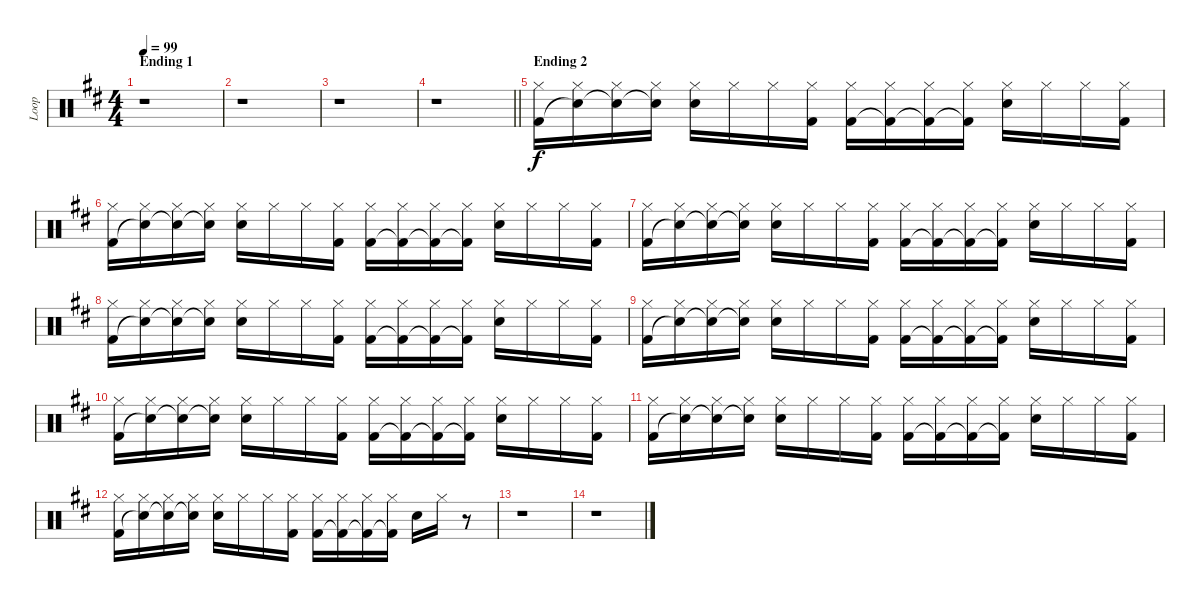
\track ("Loop" "Loop") {instrument percussion}
\staff {score}
\articulation defaults
\ts (4 4)
\section ("" "Ending 1")
\tempo 99
\clef neutral
\ks d
r.1{dy f} |
r.1 |
r.1 |
\barLineRight lightlight
r.1 |
\section ("" "Ending 2")
("Hi-Hat (closed)" "Kick (hit) 2").16 ("Hi-Hat (closed)" "Snare (hit)"{t}).16 ("Hi-Hat (closed)" "Snare (hit)"{t}).16 ("Hi-Hat (closed)" "Snare (hit)"{t}).16 ("Hi-Hat (closed)" "Electric Snare (hit)").16 "Hi-Hat (closed)".16 "Hi-Hat (closed)".16 ("Hi-Hat (closed)" "Kick (hit) 2").16 ("Hi-Hat (closed)" "Kick (hit) 2").16 ("Hi-Hat (closed)" "Kick (hit) 2"{t}).16 ("Hi-Hat (closed)" "Kick (hit) 2"{t}).16 ("Hi-Hat (closed)" "Kick (hit) 2"{t}).16 ("Hi-Hat (closed)" "Electric Snare (hit)").16 "Hi-Hat (closed)".16 "Hi-Hat (closed)".16 ("Hi-Hat (closed)" "Kick (hit) 2").16 |
("Hi-Hat (closed)" "Kick (hit) 2").16 ("Hi-Hat (closed)" "Snare (hit)"{t}).16 ("Hi-Hat (closed)" "Snare (hit)"{t}).16 ("Hi-Hat (closed)" "Snare (hit)"{t}).16 ("Hi-Hat (closed)" "Electric Snare (hit)").16 "Hi-Hat (closed)".16 "Hi-Hat (closed)".16 ("Hi-Hat (closed)" "Kick (hit) 2").16 ("Hi-Hat (closed)" "Kick (hit) 2").16 ("Hi-Hat (closed)" "Kick (hit) 2"{t}).16 ("Hi-Hat (closed)" "Kick (hit) 2"{t}).16 ("Hi-Hat (closed)" "Kick (hit) 2"{t}).16 ("Hi-Hat (closed)" "Electric Snare (hit)").16 "Hi-Hat (closed)".16 "Hi-Hat (closed)".16 ("Hi-Hat (closed)" "Kick (hit) 2").16 |
("Hi-Hat (closed)" "Kick (hit) 2").16 ("Hi-Hat (closed)" "Snare (hit)"{t}).16 ("Hi-Hat (closed)" "Snare (hit)"{t}).16 ("Hi-Hat (closed)" "Snare (hit)"{t}).16 ("Hi-Hat (closed)" "Electric Snare (hit)").16 "Hi-Hat (closed)".16 "Hi-Hat (closed)".16 ("Hi-Hat (closed)" "Kick (hit) 2").16 ("Hi-Hat (closed)" "Kick (hit) 2").16 ("Hi-Hat (closed)" "Kick (hit) 2"{t}).16 ("Hi-Hat (closed)" "Kick (hit) 2"{t}).16 ("Hi-Hat (closed)" "Kick (hit) 2"{t}).16 ("Hi-Hat (closed)" "Electric Snare (hit)").16 "Hi-Hat (closed)".16 "Hi-Hat (closed)".16 ("Hi-Hat (closed)" "Kick (hit) 2").16 |
("Hi-Hat (closed)" "Kick (hit) 2").16 ("Hi-Hat (closed)" "Snare (hit)"{t}).16 ("Hi-Hat (closed)" "Snare (hit)"{t}).16 ("Hi-Hat (closed)" "Snare (hit)"{t}).16 ("Hi-Hat (closed)" "Electric Snare (hit)").16 "Hi-Hat (closed)".16 "Hi-Hat (closed)".16 ("Hi-Hat (closed)" "Kick (hit) 2").16 ("Hi-Hat (closed)" "Kick (hit) 2").16 ("Hi-Hat (closed)" "Kick (hit) 2"{t}).16 ("Hi-Hat (closed)" "Kick (hit) 2"{t}).16 ("Hi-Hat (closed)" "Kick (hit) 2"{t}).16 ("Hi-Hat (closed)" "Electric Snare (hit)").16 "Hi-Hat (closed)".16 "Hi-Hat (closed)".16 ("Hi-Hat (closed)" "Kick (hit) 2").16 |
("Hi-Hat (closed)" "Kick (hit) 2").16 ("Hi-Hat (closed)" "Snare (hit)"{t}).16 ("Hi-Hat (closed)" "Snare (hit)"{t}).16 ("Hi-Hat (closed)" "Snare (hit)"{t}).16 ("Hi-Hat (closed)" "Electric Snare (hit)").16 "Hi-Hat (closed)".16 "Hi-Hat (closed)".16 ("Hi-Hat (closed)" "Kick (hit) 2").16 ("Hi-Hat (closed)" "Kick (hit) 2").16 ("Hi-Hat (closed)" "Kick (hit) 2"{t}).16 ("Hi-Hat (closed)" "Kick (hit) 2"{t}).16 ("Hi-Hat (closed)" "Kick (hit) 2"{t}).16 ("Hi-Hat (closed)" "Electric Snare (hit)").16 "Hi-Hat (closed)".16 "Hi-Hat (closed)".16 ("Hi-Hat (closed)" "Kick (hit) 2").16 |
("Hi-Hat (closed)" "Kick (hit) 2").16 ("Hi-Hat (closed)" "Snare (hit)"{t}).16 ("Hi-Hat (closed)" "Snare (hit)"{t}).16 ("Hi-Hat (closed)" "Snare (hit)"{t}).16 ("Hi-Hat (closed)" "Electric Snare (hit)").16 "Hi-Hat (closed)".16 "Hi-Hat (closed)".16 ("Hi-Hat (closed)" "Kick (hit) 2").16 ("Hi-Hat (closed)" "Kick (hit) 2").16 ("Hi-Hat (closed)" "Kick (hit) 2"{t}).16 ("Hi-Hat (closed)" "Kick (hit) 2"{t}).16 ("Hi-Hat (closed)" "Kick (hit) 2"{t}).16 ("Hi-Hat (closed)" "Electric Snare (hit)").16 "Hi-Hat (closed)".16 "Hi-Hat (closed)".16 ("Hi-Hat (closed)" "Kick (hit) 2").16 |
("Hi-Hat (closed)" "Kick (hit) 2").16 ("Hi-Hat (closed)" "Snare (hit)"{t}).16 ("Hi-Hat (closed)" "Snare (hit)"{t}).16 ("Hi-Hat (closed)" "Snare (hit)"{t}).16 ("Hi-Hat (closed)" "Electric Snare (hit)").16 "Hi-Hat (closed)".16 "Hi-Hat (closed)".16 ("Hi-Hat (closed)" "Kick (hit) 2").16 ("Hi-Hat (closed)" "Kick (hit) 2").16 ("Hi-Hat (closed)" "Kick (hit) 2"{t}).16 ("Hi-Hat (closed)" "Kick (hit) 2"{t}).16 ("Hi-Hat (closed)" "Kick (hit) 2"{t}).16 ("Hi-Hat (closed)" "Electric Snare (hit)").16 "Hi-Hat (closed)".16 "Hi-Hat (closed)".16 ("Hi-Hat (closed)" "Kick (hit) 2").16 |
("Hi-Hat (closed)" "Kick (hit) 2").16 ("Hi-Hat (closed)" "Snare (hit)"{t}).16 ("Hi-Hat (closed)" "Snare (hit)"{t}).16 ("Hi-Hat (closed)" "Snare (hit)"{t}).16 ("Hi-Hat (closed)" "Electric Snare (hit)").16 "Hi-Hat (closed)".16 "Hi-Hat (closed)".16 ("Hi-Hat (closed)" "Kick (hit) 2").16 ("Hi-Hat (closed)" "Kick (hit) 2").16 ("Hi-Hat (closed)" "Kick (hit) 2"{t}).16 ("Hi-Hat (closed)" "Kick (hit) 2"{t}).16 ("Hi-Hat (closed)" "Kick (hit) 2"{t}).16 "Electric Snare (hit)".16 "Hi-Hat (closed)".16 r.8 |
r.1 |
r.1
